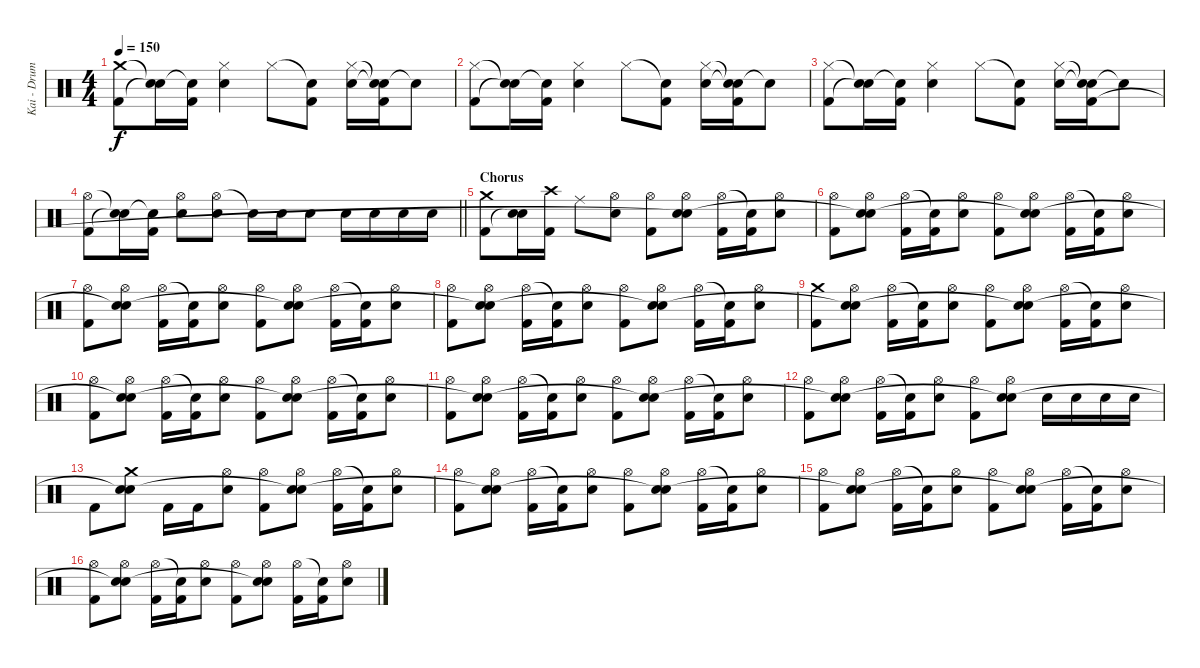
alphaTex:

\track ("Kai - Drums" "Kai - Drum") {instrument percussion}
\staff {score}
\articulation defaults
\ts (4 4)
\tempo 150
\clef neutral
\ks c
("Crash medium (hit)" "Kick (hit) 2").8{dy f} ("Snare (hit)"{t} "Snare (hit)"{t}).16 ("Snare (hit)"{t} "Kick (hit) 2").16 ("Hi-Hat (closed)" "Snare (hit) 2").4 "Hi-Hat (closed)".8 ("Snare (hit)"{t} "Kick (hit) 2").8 ("Hi-Hat (closed)" "Snare (hit) 2").16 ("Snare (hit)"{t} "Snare (hit)"{t} "Kick (hit) 2").16 "Snare (hit)"{t}.8 |
("Hi-Hat (closed)" "Kick (hit) 2").8 ("Snare (hit)"{t} "Snare (hit)"{t}).16 ("Snare (hit)"{t} "Kick (hit) 2").16 ("Hi-Hat (closed)" "Snare (hit) 2").4 "Hi-Hat (closed)".8 ("Snare (hit)"{t} "Kick (hit) 2").8 ("Hi-Hat (closed)" "Snare (hit) 2").16 ("Snare (hit)"{t} "Snare (hit)"{t} "Kick (hit) 2").16 "Snare (hit)"{t}.8 |
("Hi-Hat (closed)" "Kick (hit) 2").8 ("Snare (hit)"{t} "Snare (hit)"{t}).16 ("Snare (hit)"{t} "Kick (hit) 2").16 ("Hi-Hat (closed)" "Snare (hit) 2").4 "Hi-Hat (closed)".8 ("Snare (hit)"{t} "Kick (hit) 2").8 ("Hi-Hat (closed)" "Snare (hit) 2").16 ("Snare (hit)"{t} "Snare (hit)"{t} "Kick (hit) 2").16 "Snare (hit)"{t}.8 |
\barLineRight lightlight
("Hi-Hat (open)" "Kick (hit) 2").8 ("Snare (hit)"{t} "Snare (hit)"{t}).16 ("Snare (hit)"{t} "Kick (hit) 2").16 ("Hi-Hat (open)" "Snare (hit) 2").8 ("Hi-Hat (open)" "Snare (hit) 2").8 "Snare (hit)"{t}.16 "Snare (hit) 2".16 "Snare (hit) 2".8 "Snare (hit) 2".16 "Snare (hit) 2".16 "Snare (hit) 2".16 "Snare (hit) 2".16 |
\section ("" "Chorus")
("Crash medium (hit)" "Kick (hit) 2").8 ("Snare (hit) 2" "Snare (hit)"{t}).16 ("Crash high (hit)" "Kick (hit) 2").16 "Ride (middle)".8 ("Hi-Hat (open)" "Snare (hit) 2").8 ("Hi-Hat (open)" "Kick (hit) 2").8 ("Hi-Hat (open)" "Snare (hit) 2" "Snare (hit)"{t}).8 ("Hi-Hat (open)" "Kick (hit) 2").16 ("Snare (hit)"{t} "Kick (hit) 2").16 ("Hi-Hat (open)" "Snare (hit) 2").8 |
("Hi-Hat (open)" "Kick (hit) 2").8 ("Hi-Hat (open)" "Snare (hit) 2" "Snare (hit)"{t}).8 ("Hi-Hat (open)" "Kick (hit) 2").16 ("Snare (hit)"{t} "Kick (hit) 2").16 ("Hi-Hat (open)" "Snare (hit) 2").8 ("Hi-Hat (open)" "Kick (hit) 2").8 ("Hi-Hat (open)" "Snare (hit) 2" "Snare (hit)"{t}).8 ("Hi-Hat (open)" "Kick (hit) 2").16 ("Snare (hit)"{t} "Kick (hit) 2").16 ("Hi-Hat (open)" "Snare (hit) 2").8 |
("Hi-Hat (open)" "Kick (hit) 2").8 ("Hi-Hat (open)" "Snare (hit) 2" "Snare (hit)"{t}).8 ("Hi-Hat (open)" "Kick (hit) 2").16 ("Snare (hit)"{t} "Kick (hit) 2").16 ("Hi-Hat (open)" "Snare (hit) 2").8 ("Hi-Hat (open)" "Kick (hit) 2").8 ("Hi-Hat (open)" "Snare (hit) 2" "Snare (hit)"{t}).8 ("Hi-Hat (open)" "Kick (hit) 2").16 ("Snare (hit)"{t} "Kick (hit) 2").16 ("Hi-Hat (open)" "Snare (hit) 2").8 |
("Hi-Hat (open)" "Kick (hit) 2").8 ("Hi-Hat (open)" "Snare (hit) 2" "Snare (hit)"{t}).8 ("Hi-Hat (open)" "Kick (hit) 2").16 ("Snare (hit)"{t} "Kick (hit) 2").16 ("Hi-Hat (open)" "Snare (hit) 2").8 ("Hi-Hat (open)" "Kick (hit) 2").8 ("Hi-Hat (open)" "Snare (hit) 2" "Snare (hit)"{t}).8 ("Hi-Hat (open)" "Kick (hit) 2").16 ("Snare (hit)"{t} "Kick (hit) 2").16 ("Hi-Hat (open)" "Snare (hit) 2").8 |
("Crash medium (hit)" "Kick (hit) 2").8 ("Hi-Hat (open)" "Snare (hit) 2" "Snare (hit)"{t}).8 ("Hi-Hat (open)" "Kick (hit) 2").16 ("Snare (hit)"{t} "Kick (hit) 2").16 ("Hi-Hat (open)" "Snare (hit) 2").8 ("Hi-Hat (open)" "Kick (hit) 2").8 ("Hi-Hat (open)" "Snare (hit) 2" "Snare (hit)"{t}).8 ("Hi-Hat (open)" "Kick (hit) 2").16 ("Snare (hit)"{t} "Kick (hit) 2").16 ("Hi-Hat (open)" "Snare (hit) 2").8 |
("Hi-Hat (open)" "Kick (hit) 2").8 ("Hi-Hat (open)" "Snare (hit) 2" "Snare (hit)"{t}).8 ("Hi-Hat (open)" "Kick (hit) 2").16 ("Snare (hit)"{t} "Kick (hit) 2").16 ("Hi-Hat (open)" "Snare (hit) 2").8 ("Hi-Hat (open)" "Kick (hit) 2").8 ("Hi-Hat (open)" "Snare (hit) 2" "Snare (hit)"{t}).8 ("Hi-Hat (open)" "Kick (hit) 2").16 ("Snare (hit)"{t} "Kick (hit) 2").16 ("Hi-Hat (open)" "Snare (hit) 2").8 |
("Hi-Hat (open)" "Kick (hit) 2").8 ("Hi-Hat (open)" "Snare (hit) 2" "Snare (hit)"{t}).8 ("Hi-Hat (open)" "Kick (hit) 2").16 ("Snare (hit)"{t} "Kick (hit) 2").16 ("Hi-Hat (open)" "Snare (hit) 2").8 ("Hi-Hat (open)" "Kick (hit) 2").8 ("Hi-Hat (open)" "Snare (hit) 2" "Snare (hit)"{t}).8 ("Hi-Hat (open)" "Kick (hit) 2").16 ("Snare (hit)"{t} "Kick (hit) 2").16 ("Hi-Hat (open)" "Snare (hit) 2").8 |
("Hi-Hat (open)" "Kick (hit) 2").8 ("Hi-Hat (open)" "Snare (hit) 2" "Snare (hit)"{t}).8 ("Hi-Hat (open)" "Kick (hit) 2").16 ("Snare (hit)"{t} "Kick (hit) 2").16 ("Hi-Hat (open)" "Snare (hit) 2").8 ("Hi-Hat (open)" "Kick (hit) 2").8 ("Hi-Hat (open)" "Snare (hit) 2" "Snare (hit)"{t}).8 "Snare (hit) 2".16 "Snare (hit) 2".16 "Snare (hit) 2".16 "Snare (hit) 2".16 |
"Kick (hit) 2".8 ("Crash medium (hit)" "Snare (hit) 2" "Snare (hit)"{t}).8 "Kick (hit) 2".16 "Kick (hit) 2".16 ("Hi-Hat (open)" "Snare (hit) 2").8 ("Hi-Hat (open)" "Kick (hit) 2").8 ("Hi-Hat (open)" "Snare (hit) 2" "Snare (hit)"{t}).8 ("Hi-Hat (open)" "Kick (hit) 2").16 ("Snare (hit)"{t} "Kick (hit) 2").16 ("Hi-Hat (open)" "Snare (hit) 2").8 |
("Hi-Hat (open)" "Kick (hit) 2").8 ("Hi-Hat (open)" "Snare (hit) 2" "Snare (hit)"{t}).8 ("Hi-Hat (open)" "Kick (hit) 2").16 ("Snare (hit)"{t} "Kick (hit) 2").16 ("Hi-Hat (open)" "Snare (hit) 2").8 ("Hi-Hat (open)" "Kick (hit) 2").8 ("Hi-Hat (open)" "Snare (hit) 2" "Snare (hit)"{t}).8 ("Hi-Hat (open)" "Kick (hit) 2").16 ("Snare (hit)"{t} "Kick (hit) 2").16 ("Hi-Hat (open)" "Snare (hit) 2").8 |
("Hi-Hat (open)" "Kick (hit) 2").8 ("Hi-Hat (open)" "Snare (hit) 2" "Snare (hit)"{t}).8 ("Hi-Hat (open)" "Kick (hit) 2").16 ("Snare (hit)"{t} "Kick (hit) 2").16 ("Hi-Hat (open)" "Snare (hit) 2").8 ("Hi-Hat (open)" "Kick (hit) 2").8 ("Hi-Hat (open)" "Snare (hit) 2" "Snare (hit)"{t}).8 ("Hi-Hat (open)" "Kick (hit) 2").16 ("Snare (hit)"{t} "Kick (hit) 2").16 ("Hi-Hat (open)" "Snare (hit) 2").8 |
("Hi-Hat (open)" "Kick (hit) 2").8 ("Hi-Hat (open)" "Snare (hit) 2" "Snare (hit)"{t}).8 ("Hi-Hat (open)" "Kick (hit) 2").16 ("Snare (hit)"{t} "Kick (hit) 2").16 ("Hi-Hat (open)" "Snare (hit) 2").8 ("Hi-Hat (open)" "Kick (hit) 2").8 ("Hi-Hat (open)" "Snare (hit) 2" "Snare (hit)"{t}).8 ("Hi-Hat (open)" "Kick (hit) 2").16 ("Snare (hit)"{t} "Kick (hit) 2").16 ("Hi-Hat (open)" "Snare (hit) 2").8
